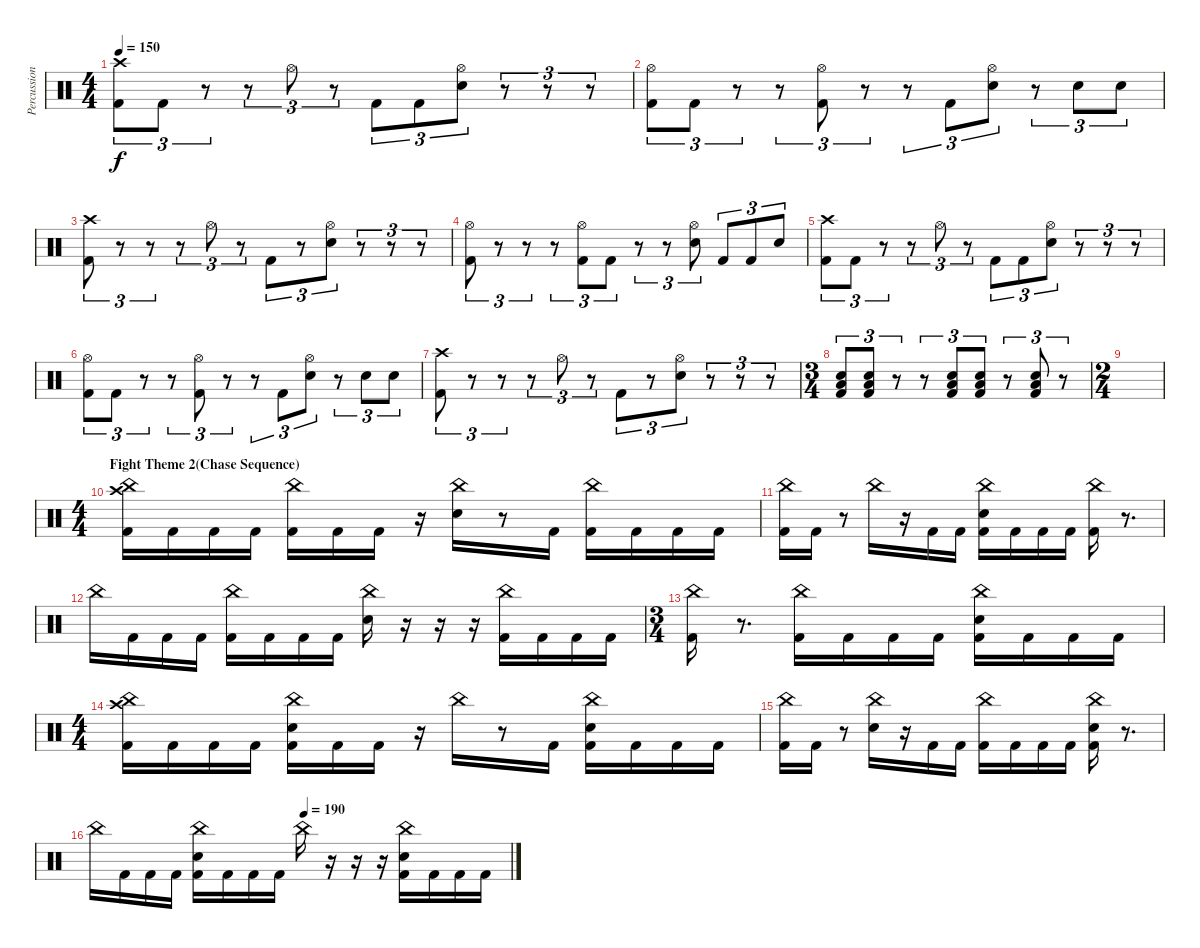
\track ("Percussion" "Percussion") {instrument percussion}
\staff {score}
\articulation defaults
\ts (4 4)
\tempo 150
\clef neutral
\ks c
("Crash high (hit)" "Kick (hit) 2").8{tu (3 2) dy f} "Kick (hit) 2".8{tu (3 2)} r.8{tu (3 2)} r.8{tu (3 2)} "Hi-Hat (open)".8{tu (3 2)} r.8{tu (3 2)} "Kick (hit) 2".8{tu (3 2)} "Kick (hit) 2".8{tu (3 2)} ("Hi-Hat (open)" "Electric Snare (hit)").8{tu (3 2)} r.8{tu (3 2)} r.8{tu (3 2)} r.8{tu (3 2)} |
("Hi-Hat (open)" "Kick (hit) 2").8{tu (3 2)} "Kick (hit) 2".8{tu (3 2)} r.8{tu (3 2)} r.8{tu (3 2)} ("Hi-Hat (open)" "Kick (hit) 2").8{tu (3 2)} r.8{tu (3 2)} r.8{tu (3 2)} "Kick (hit) 2".8{tu (3 2)} ("Hi-Hat (open)" "Electric Snare (hit)").8{tu (3 2)} r.8{tu (3 2)} "Electric Snare (hit)".8{tu (3 2)} "Electric Snare (hit)".8{tu (3 2)} |
("Crash high (hit)" "Kick (hit) 2").8{tu (3 2)} r.8{tu (3 2)} r.8{tu (3 2)} r.8{tu (3 2)} "Hi-Hat (open)".8{tu (3 2)} r.8{tu (3 2)} "Kick (hit) 2".8{tu (3 2)} r.8{tu (3 2)} ("Hi-Hat (open)" "Electric Snare (hit)").8{tu (3 2)} r.8{tu (3 2)} r.8{tu (3 2)} r.8{tu (3 2)} |
("Hi-Hat (open)" "Kick (hit) 2").8{tu (3 2)} r.8{tu (3 2)} r.8{tu (3 2)} r.8{tu (3 2)} ("Hi-Hat (open)" "Kick (hit) 2").8{tu (3 2)} "Kick (hit) 2".8{tu (3 2)} r.8{tu (3 2)} r.8{tu (3 2)} ("Hi-Hat (open)" "Electric Snare (hit)").8{tu (3 2)} "Kick (hit) 2".8{tu (3 2)} "Kick (hit) 2".8{tu (3 2)} "Electric Snare (hit)".8{tu (3 2)} |
("Crash high (hit)" "Kick (hit) 2").8{tu (3 2)} "Kick (hit) 2".8{tu (3 2)} r.8{tu (3 2)} r.8{tu (3 2)} "Hi-Hat (open)".8{tu (3 2)} r.8{tu (3 2)} "Kick (hit) 2".8{tu (3 2)} "Kick (hit) 2".8{tu (3 2)} ("Hi-Hat (open)" "Electric Snare (hit)").8{tu (3 2)} r.8{tu (3 2)} r.8{tu (3 2)} r.8{tu (3 2)} |
("Hi-Hat (open)" "Kick (hit) 2").8{tu (3 2)} "Kick (hit) 2".8{tu (3 2)} r.8{tu (3 2)} r.8{tu (3 2)} ("Hi-Hat (open)" "Kick (hit) 2").8{tu (3 2)} r.8{tu (3 2)} r.8{tu (3 2)} "Kick (hit) 2".8{tu (3 2)} ("Hi-Hat (open)" "Electric Snare (hit)").8{tu (3 2)} r.8{tu (3 2)} "Electric Snare (hit)".8{tu (3 2)} "Electric Snare (hit)".8{tu (3 2)} |
("Crash high (hit)" "Kick (hit) 2").8{tu (3 2)} r.8{tu (3 2)} r.8{tu (3 2)} r.8{tu (3 2)} "Hi-Hat (open)".8{tu (3 2)} r.8{tu (3 2)} "Kick (hit) 2".8{tu (3 2)} r.8{tu (3 2)} ("Hi-Hat (open)" "Electric Snare (hit)").8{tu (3 2)} r.8{tu (3 2)} r.8{tu (3 2)} r.8{tu (3 2)} |
\ts (3 4)
("Electric Snare (hit)" "Low Floor Tom (hit)" "Kick (hit) 2").8{tu (3 2)} ("Electric Snare (hit)" "Low Floor Tom (hit)" "Kick (hit) 2").8{tu (3 2)} r.8{tu (3 2)} r.8{tu (3 2)} ("Electric Snare (hit)" "Low Floor Tom (hit)" "Kick (hit) 2").8{tu (3 2)} ("Electric Snare (hit)" "Low Floor Tom (hit)" "Kick (hit) 2").8{tu (3 2)} r.8{tu (3 2)} ("Electric Snare (hit)" "Low Floor Tom (hit)" "Kick (hit) 2").8{tu (3 2)} r.8{tu (3 2)} |
\ts (2 4)
|
\ts (4 4)
\section ("" "Fight Theme 2(Chase Sequence)")
("China (hit)" "Crash high (hit)" "Kick (hit) 2").16 "Kick (hit) 2".16 "Kick (hit) 2".16 "Kick (hit) 2".16 ("China (hit)" "Kick (hit) 2").16 "Kick (hit) 2".16 "Kick (hit) 2".16 r.16 ("China (hit)" "Electric Snare (hit)").16 r.8 "Kick (hit) 2".16 ("China (hit)" "Kick (hit) 2").16 "Kick (hit) 2".16 "Kick (hit) 2".16 "Kick (hit) 2".16 |
("China (hit)" "Kick (hit) 2").16 "Kick (hit) 2".16 r.8 "China (hit)".16 r.16 "Kick (hit) 2".16 "Kick (hit) 2".16 ("China (hit)" "Electric Snare (hit)" "Kick (hit) 2").16 "Kick (hit) 2".16 "Kick (hit) 2".16 "Kick (hit) 2".16 ("China (hit)" "Kick (hit) 2").16 r.8{d} |
"China (hit)".16 "Kick (hit) 2".16 "Kick (hit) 2".16 "Kick (hit) 2".16 ("China (hit)" "Kick (hit) 2").16 "Kick (hit) 2".16 "Kick (hit) 2".16 "Kick (hit) 2".16 ("China (hit)" "Electric Snare (hit)").16 r.16 r.16 r.16 ("China (hit)" "Kick (hit) 2").16 "Kick (hit) 2".16 "Kick (hit) 2".16 "Kick (hit) 2".16 |
\ts (3 4)
("China (hit)" "Kick (hit) 2").16 r.8{d} ("China (hit)" "Kick (hit) 2").16 "Kick (hit) 2".16 "Kick (hit) 2".16 "Kick (hit) 2".16 ("China (hit)" "Electric Snare (hit)" "Kick (hit) 2").16 "Kick (hit) 2".16 "Kick (hit) 2".16 "Kick (hit) 2".16 |
\ts (4 4)
("China (hit)" "Crash high (hit)" "Kick (hit) 2").16 "Kick (hit) 2".16 "Kick (hit) 2".16 "Kick (hit) 2".16 ("China (hit)" "Electric Snare (hit)" "Kick (hit) 2").16 "Kick (hit) 2".16 "Kick (hit) 2".16 r.16 "China (hit)".16 r.8 "Kick (hit) 2".16 ("China (hit)" "Electric Snare (hit)" "Kick (hit) 2").16 "Kick (hit) 2".16 "Kick (hit) 2".16 "Kick (hit) 2".16 |
("China (hit)" "Kick (hit) 2").16 "Kick (hit) 2".16 r.8 ("China (hit)" "Electric Snare (hit)").16 r.16 "Kick (hit) 2".16 "Kick (hit) 2".16 ("China (hit)" "Kick (hit) 2").16 "Kick (hit) 2".16 "Kick (hit) 2".16 "Kick (hit) 2".16 ("China (hit)" "Electric Snare (hit)" "Kick (hit) 2").16 r.8{d} |
\tempo (190 0.5)
"China (hit)".16 "Kick (hit) 2".16 "Kick (hit) 2".16 "Kick (hit) 2".16 ("China (hit)" "Electric Snare (hit)" "Kick (hit) 2").16 "Kick (hit) 2".16 "Kick (hit) 2".16 "Kick (hit) 2".16 "China (hit)".16 r.16 r.16 r.16 ("China (hit)" "Electric Snare (hit)" "Kick (hit) 2").16 "Kick (hit) 2".16 "Kick (hit) 2".16 "Kick (hit) 2".16
